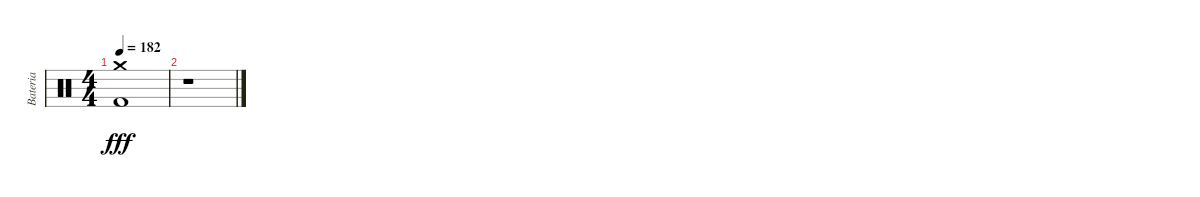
\track ("Bateria" "Bateria") {instrument percussion}
\staff {score}
\articulation defaults
\ts (4 4)
\tempo 182
\clef neutral
\ks c
("Crash medium (hit)" "Kick (hit) 2").1{dy fff} |
r.1
